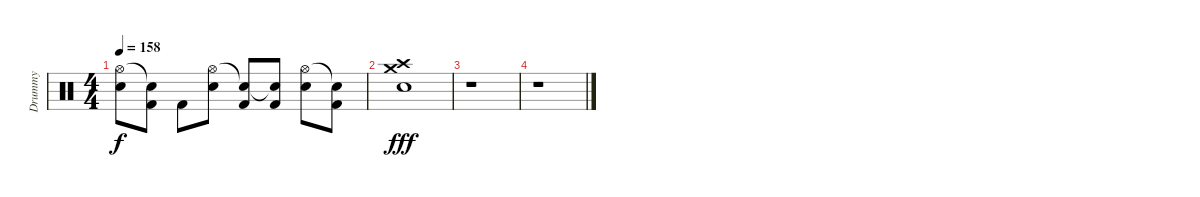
\track ("Drummy" "Drummy") {instrument percussion bank 127}
\staff {score}
\articulation defaults
\ts (4 4)
\tempo 158
\clef neutral
\ks c
("Hi-Hat (open)" "Electric Snare (hit)").8{dy f} ("Snare (hit)"{t} "Kick (hit) 2").8 "Kick (hit) 2".8 ("Hi-Hat (open)" "Electric Snare (hit)").8 ("Snare (hit)"{t} "Kick (hit) 2").8 ("Snare (hit)"{t} "Kick (hit) 2").8 ("Hi-Hat (open)" "Electric Snare (hit)").8 ("Snare (hit)"{t} "Kick (hit) 2").8 |
("Crash medium (hit)" "Crash high (hit)" "Electric Snare (hit)").1{dy fff} |
r.1 |
r.1
